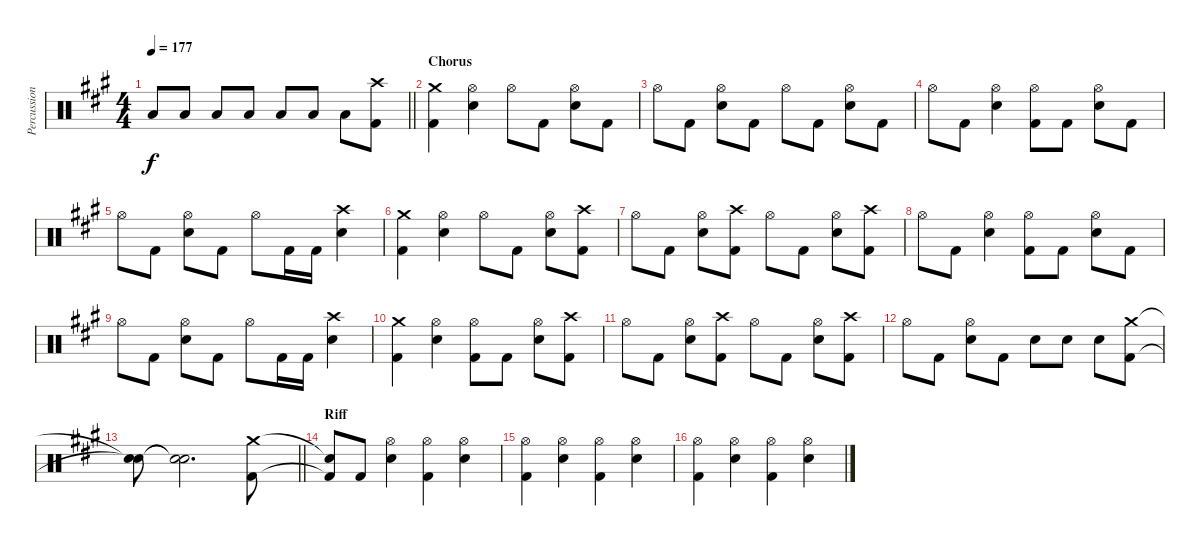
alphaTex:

\track ("Percussion" "Percussion") {instrument percussion}
\staff {score}
\articulation defaults
\ts (4 4)
\tempo 177
\clef neutral
\barLineRight lightlight
\ks a "Low Tom (hit)".8{dy f} "Low Tom (hit)".8 "Low Tom (hit)".8 "Low Tom (hit)".8 "Low Tom (hit)".8 "Low Tom (hit)".8 "Low Tom (hit)".8
("Kick (hit) 2" "Crash high (hit)").8 |
\section ("" "Chorus")
("Kick (hit) 2" "Crash medium (hit)").4 ("Hi-Hat (open)" "Snare (hit) 2").4 "Hi-Hat (open)".8 "Kick (hit) 2".8 ("Hi-Hat (open)" "Snare (hit) 2").8 "Kick (hit) 2".8 |
"Hi-Hat (open)".8 "Kick (hit) 2".8 ("Hi-Hat (open)" "Snare (hit) 2").8 "Kick (hit) 2".8 "Hi-Hat (open)".8 "Kick (hit) 2".8 ("Hi-Hat (open)" "Snare (hit) 2").8 "Kick (hit) 2".8 |
"Hi-Hat (open)".8 "Kick (hit) 2".8 ("Hi-Hat (open)" "Snare (hit) 2").4 ("Hi-Hat (open)" "Kick (hit) 2").8 "Kick (hit) 2".8 ("Hi-Hat (open)" "Snare (hit) 2").8 "Kick (hit) 2".8 |
"Hi-Hat (open)".8 "Kick (hit) 2".8 ("Hi-Hat (open)" "Snare (hit) 2").8 "Kick (hit) 2".8 "Hi-Hat (open)".8 "Kick (hit) 2".16 "Kick (hit) 2".16 ("Snare (hit) 2" "Crash high (hit)").4 |
("Kick (hit) 2" "Crash medium (hit)").4 ("Hi-Hat (open)" "Snare (hit) 2").4 "Hi-Hat (open)".8 "Kick (hit) 2".8 ("Hi-Hat (open)" "Snare (hit) 2").8 ("Kick (hit) 2" "Crash high (hit)").8 |
"Hi-Hat (open)".8 "Kick (hit) 2".8 ("Hi-Hat (open)" "Snare (hit) 2").8 ("Kick (hit) 2" "Crash high (hit)").8 "Hi-Hat (open)".8 "Kick (hit) 2".8 ("Hi-Hat (open)" "Snare (hit) 2").8 ("Kick (hit) 2" "Crash high (hit)").8 |
"Hi-Hat (open)".8 "Kick (hit) 2".8 ("Hi-Hat (open)" "Snare (hit) 2").4 ("Hi-Hat (open)" "Kick (hit) 2").8 "Kick (hit) 2".8 ("Hi-Hat (open)" "Snare (hit) 2").8 "Kick (hit) 2".8 |
"Hi-Hat (open)".8 "Kick (hit) 2".8 ("Hi-Hat (open)" "Snare (hit) 2").8 "Kick (hit) 2".8 "Hi-Hat (open)".8 "Kick (hit) 2".16 "Kick (hit) 2".16 ("Snare (hit) 2" "Crash high (hit)").4 |
("Kick (hit) 2" "Crash medium (hit)").4 ("Hi-Hat (open)" "Snare (hit) 2").4 ("Hi-Hat (open)" "Kick (hit) 2").8 "Kick (hit) 2".8 ("Hi-Hat (open)" "Snare (hit) 2").8 ("Kick (hit) 2" "Crash high (hit)").8 |
"Hi-Hat (open)".8 "Kick (hit) 2".8 ("Hi-Hat (open)" "Snare (hit) 2").8 ("Kick (hit) 2" "Crash high (hit)").8 "Hi-Hat (open)".8 "Kick (hit) 2".8 ("Hi-Hat (open)" "Snare (hit) 2").8 ("Kick (hit) 2" "Crash high (hit)").8 |
"Hi-Hat (open)".8 "Kick (hit) 2".8 ("Hi-Hat (open)" "Snare (hit) 2").8 "Kick (hit) 2".8 "Snare (hit) 2".8 "Snare (hit) 2".8 "Snare (hit) 2".8 ("Kick (hit) 2" "Crash medium (hit)").8 |
\barLineRight lightlight
("Snare (hit)"{t} "Snare (hit)"{t}).8 ("Snare (hit)"{t} "Snare (hit)"{t}).2{d} ("Kick (hit) 2" "Crash medium (hit)").8 |
\section ("" "Riff")
("Kick (hit) 2"{t} "Snare (hit)"{t}).8 "Kick (hit) 2".8 ("Hi-Hat (open)" "Snare (hit) 2").4 ("Hi-Hat (open)" "Kick (hit) 2").4 ("Hi-Hat (open)" "Snare (hit) 2").4 |
("Hi-Hat (open)" "Kick (hit) 2").4 ("Hi-Hat (open)" "Snare (hit) 2").4 ("Hi-Hat (open)" "Kick (hit) 2").4 ("Hi-Hat (open)" "Snare (hit) 2").4 |
("Hi-Hat (open)" "Kick (hit) 2").4 ("Hi-Hat (open)" "Snare (hit) 2").4 ("Hi-Hat (open)" "Kick (hit) 2").4 ("Hi-Hat (open)" "Snare (hit) 2").4
